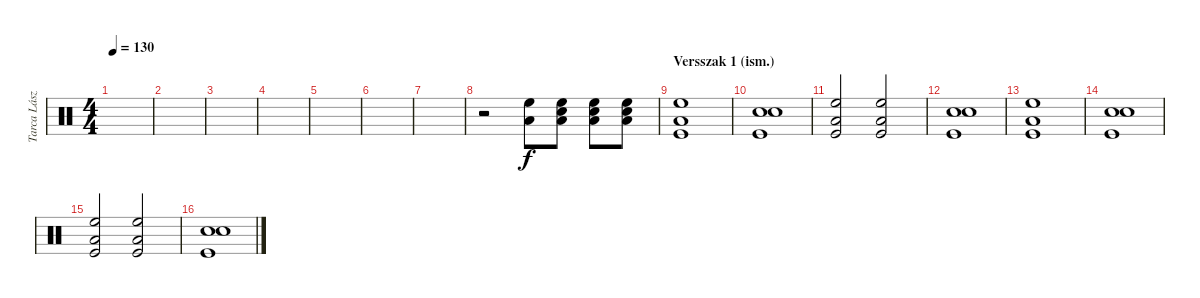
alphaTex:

\track ("Tarca László" "Tarca Lász") {instrument percussion}
\staff {score}
\articulation defaults
\ts (4 4)
\tempo 130
\clef neutral
\ks c
|
|
|
|
|
|
|
r.2 ("Low Tom (hit)" "High Floor Tom (hit)").8 ("Low Tom (hit)" "High Floor Tom (hit)" "Snare (hit) 2").8 ("Low Tom (hit)" "High Floor Tom (hit)" "Snare (hit) 2").8 ("Low Tom (hit)" "High Floor Tom (hit)" "Snare (hit) 2").8 |
\section ("" "Versszak 1 (ism.)")
("Low Tom (hit)" "High Floor Tom (hit)" "Kick (hit)").1 |
("Snare (hit) 2" "Snare (hit) 2" "Kick (hit)").1 |
("Low Tom (hit)" "High Floor Tom (hit)" "Kick (hit)").2 ("Low Tom (hit)" "High Floor Tom (hit)" "Kick (hit)").2 |
("Snare (hit) 2" "Snare (hit) 2" "Kick (hit)").1 |
("Low Tom (hit)" "High Floor Tom (hit)" "Kick (hit)").1 |
("Snare (hit) 2" "Snare (hit) 2" "Kick (hit)").1 |
("Low Tom (hit)" "High Floor Tom (hit)" "Kick (hit)").2 ("Low Tom (hit)" "High Floor Tom (hit)" "Kick (hit)").2 |
("Snare (hit) 2" "Snare (hit) 2" "Kick (hit)").1
